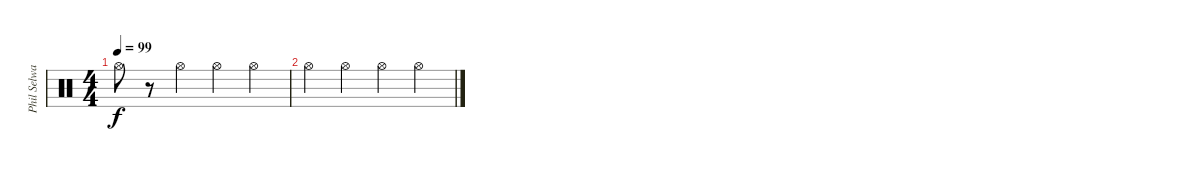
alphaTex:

\track ("Phil Selway" "Phil Selwa") {instrument percussion}
\staff {score}
\articulation defaults
\ts (4 4)
\tempo 99
\clef neutral
\ks c "Hi-Hat (open)".8{dy f}
r.8 "Hi-Hat (open)".4 "Hi-Hat (open)".4 "Hi-Hat (open)".4 |
"Hi-Hat (open)".4 "Hi-Hat (open)".4 "Hi-Hat (open)".4 "Hi-Hat (open)".4
